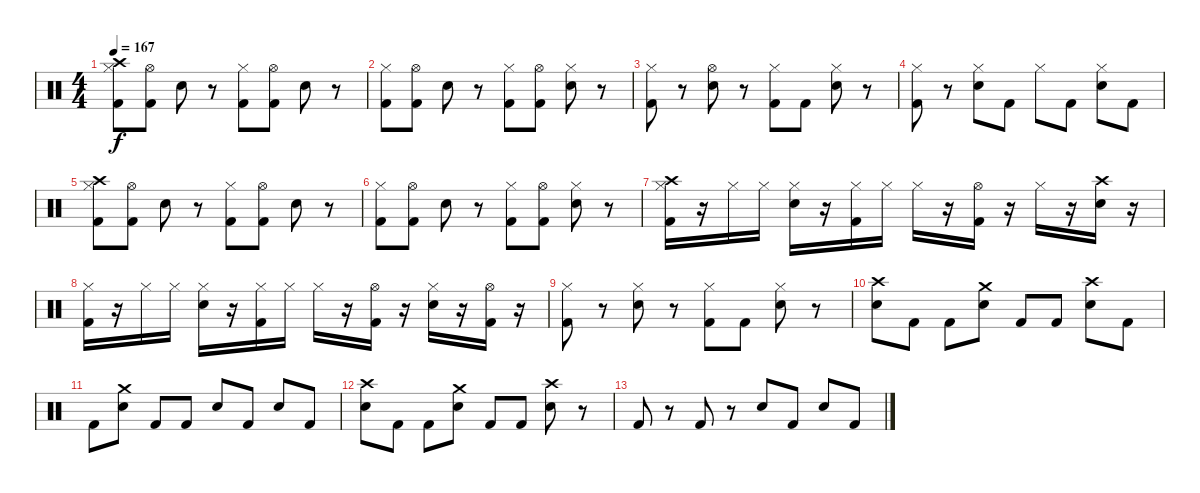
\track "" {instrument percussion}
\staff {score}
\articulation defaults
\ts (4 4)
\tempo 167
\clef neutral
\ks c
("Hi-Hat (closed)" "Kick (hit) 2" "Crash high (hit)").8{dy f} ("Hi-Hat (open)" "Kick (hit) 2").8 "Electric Snare (hit)".8 r.8 ("Hi-Hat (closed)" "Kick (hit) 2").8 ("Hi-Hat (open)" "Kick (hit) 2").8 "Electric Snare (hit)".8 r.8 |
("Hi-Hat (closed)" "Kick (hit) 2").8 ("Hi-Hat (open)" "Kick (hit) 2").8 "Electric Snare (hit)".8 r.8 ("Hi-Hat (closed)" "Kick (hit) 2").8 ("Hi-Hat (open)" "Kick (hit) 2").8 ("Hi-Hat (closed)" "Electric Snare (hit)").8 r.8 |
("Hi-Hat (closed)" "Kick (hit) 2").8 r.8 ("Hi-Hat (open)" "Electric Snare (hit)").8 r.8 ("Hi-Hat (closed)" "Kick (hit) 2").8 "Kick (hit) 2".8 ("Hi-Hat (closed)" "Electric Snare (hit)").8 r.8 |
("Hi-Hat (closed)" "Kick (hit) 2").8 r.8 ("Hi-Hat (closed)" "Electric Snare (hit)").8 "Kick (hit) 2".8 "Hi-Hat (closed)".8 "Kick (hit) 2".8 ("Hi-Hat (closed)" "Electric Snare (hit)").8 "Kick (hit) 2".8 |
("Hi-Hat (closed)" "Kick (hit) 2" "Crash high (hit)").8 ("Hi-Hat (open)" "Kick (hit) 2").8 "Electric Snare (hit)".8 r.8 ("Hi-Hat (closed)" "Kick (hit) 2").8 ("Hi-Hat (open)" "Kick (hit) 2").8 "Electric Snare (hit)".8 r.8 |
("Hi-Hat (closed)" "Kick (hit) 2").8 ("Hi-Hat (open)" "Kick (hit) 2").8 "Electric Snare (hit)".8 r.8 ("Hi-Hat (closed)" "Kick (hit) 2").8 ("Hi-Hat (open)" "Kick (hit) 2").8 ("Hi-Hat (closed)" "Electric Snare (hit)").8 r.8 |
("Hi-Hat (closed)" "Kick (hit) 2" "Crash high (hit)").16 r.16 "Hi-Hat (closed)".16 "Hi-Hat (closed)".16 ("Hi-Hat (closed)" "Electric Snare (hit)").16 r.16 ("Hi-Hat (closed)" "Kick (hit) 2").16 "Hi-Hat (closed)".16 "Hi-Hat (closed)".16 r.16 ("Hi-Hat (open)" "Kick (hit) 2").16 r.16 "Hi-Hat (closed)".16 r.16 ("Electric Snare (hit)" "Crash high (hit)").16 r.16 |
("Hi-Hat (closed)" "Kick (hit) 2").16 r.16 "Hi-Hat (closed)".16 "Hi-Hat (closed)".16 ("Hi-Hat (closed)" "Electric Snare (hit)").16 r.16 ("Hi-Hat (closed)" "Kick (hit) 2").16 "Hi-Hat (closed)".16 "Hi-Hat (closed)".16 r.16 ("Hi-Hat (open)" "Kick (hit) 2").16 r.16 ("Hi-Hat (closed)" "Electric Snare (hit)").16 r.16 ("Hi-Hat (open)" "Kick (hit) 2").16 r.16 |
("Hi-Hat (closed)" "Kick (hit) 2").8 r.8 ("Hi-Hat (closed)" "Electric Snare (hit)").8 r.8 ("Hi-Hat (closed)" "Kick (hit) 2").8 "Kick (hit) 2".8 ("Hi-Hat (closed)" "Electric Snare (hit)").8 r.8 |
("Crash high (hit)" "Electric Snare (hit)").8 "Kick (hit) 2".8 "Kick (hit) 2".8 ("Crash medium (hit)" "Electric Snare (hit)").8 "Kick (hit) 2".8 "Kick (hit) 2".8 ("Crash high (hit)" "Electric Snare (hit)").8 "Kick (hit) 2".8 |
"Kick (hit) 2".8 ("Crash medium (hit)" "Electric Snare (hit)").8 "Kick (hit) 2".8 "Kick (hit) 2".8 "Electric Snare (hit)".8 "Kick (hit) 2".8 "Electric Snare (hit)".8 "Kick (hit) 2".8 |
("Crash high (hit)" "Electric Snare (hit)").8 "Kick (hit) 2".8 "Kick (hit) 2".8 ("Crash medium (hit)" "Electric Snare (hit)").8 "Kick (hit) 2".8 "Kick (hit) 2".8 ("Crash high (hit)" "Electric Snare (hit)").8 r.8 |
"Kick (hit) 2".8 r.8 "Kick (hit) 2".8 r.8 "Electric Snare (hit)".8 "Kick (hit) 2".8 "Electric Snare (hit)".8 "Kick (hit) 2".8
